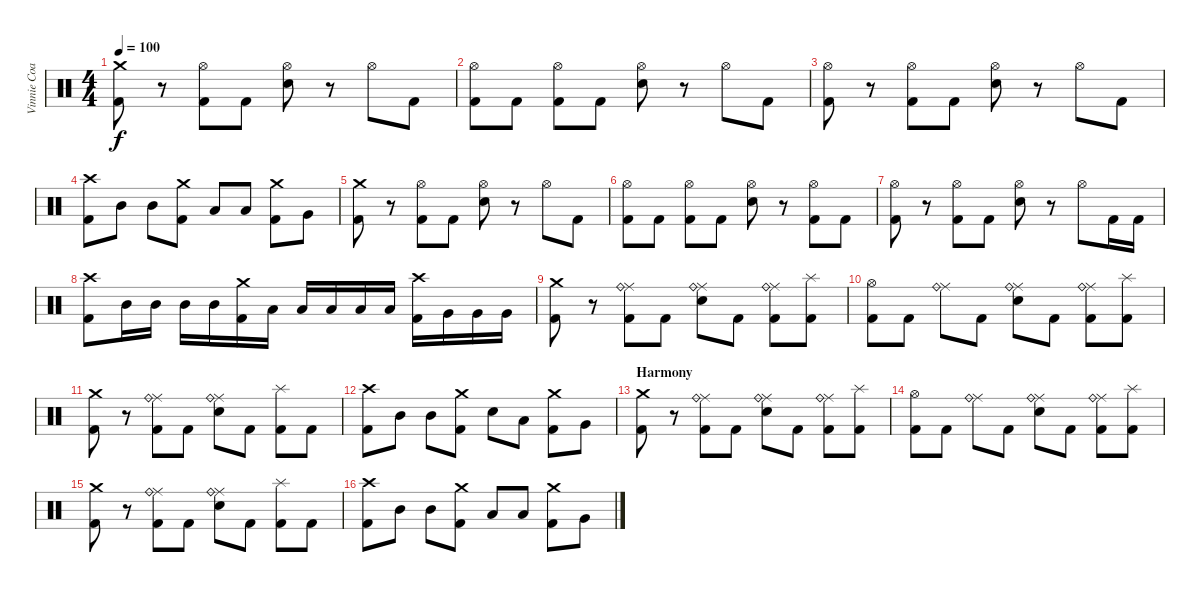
\track ("Vinnie Coaiuta" "Vinnie Coa") {instrument percussion}
\staff {score}
\articulation defaults
\ts (4 4)
\tempo 100
\clef neutral
\ks c
("Crash medium (hit)" "Kick (hit) 2").8{dy f} r.8 ("Hi-Hat (open)" "Kick (hit) 2").8 "Kick (hit) 2".8 ("Hi-Hat (open)" "Electric Snare (hit)").8 r.8 "Hi-Hat (open)".8 "Kick (hit) 2".8 |
("Hi-Hat (open)" "Kick (hit) 2").8 "Kick (hit) 2".8 ("Hi-Hat (open)" "Kick (hit) 2").8 "Kick (hit) 2".8 ("Hi-Hat (open)" "Electric Snare (hit)").8 r.8 "Hi-Hat (open)".8 "Kick (hit) 2".8 |
("Hi-Hat (open)" "Kick (hit) 2").8 r.8 ("Hi-Hat (open)" "Kick (hit) 2").8 "Kick (hit) 2".8 ("Hi-Hat (open)" "Electric Snare (hit)").8 r.8 "Hi-Hat (open)".8 "Kick (hit) 2".8 |
("Crash high (hit)" "Kick (hit) 2").8 "Mid Tom (hit)".8 "Mid Tom (hit)".8 ("Crash medium (hit)" "Kick (hit) 2").8 "Low Tom (hit)".8 "Low Tom (hit)".8 ("Crash medium (hit)" "Kick (hit) 2").8 "Very Low Tom (hit)".8 |
("Crash medium (hit)" "Kick (hit) 2").8 r.8 ("Hi-Hat (open)" "Kick (hit) 2").8 "Kick (hit) 2".8 ("Hi-Hat (open)" "Electric Snare (hit)").8 r.8 "Hi-Hat (open)".8 "Kick (hit) 2".8 |
("Hi-Hat (open)" "Kick (hit) 2").8 "Kick (hit) 2".8 ("Hi-Hat (open)" "Kick (hit) 2").8 "Kick (hit) 2".8 ("Hi-Hat (open)" "Electric Snare (hit)").8 r.8 ("Hi-Hat (open)" "Kick (hit) 2").8 "Kick (hit) 2".8 |
("Hi-Hat (open)" "Kick (hit) 2").8 r.8 ("Hi-Hat (open)" "Kick (hit) 2").8 "Kick (hit) 2".8 ("Hi-Hat (open)" "Electric Snare (hit)").8 r.8 "Hi-Hat (open)".8 "Kick (hit) 2".16 "Kick (hit) 2".16 |
("Crash high (hit)" "Kick (hit) 2").8 "Mid Tom (hit)".16 "Mid Tom (hit)".16 "Mid Tom (hit)".16 "Mid Tom (hit)".16 ("Crash medium (hit)" "Kick (hit) 2").16 "Low Tom (hit)".16 "Low Tom (hit)".16 "Low Tom (hit)".16 "Low Tom (hit)".16 "Low Tom (hit)".16 ("Crash high (hit)" "Kick (hit) 2").16 "Very Low Tom (hit)".16 "Very Low Tom (hit)".16 "Very Low Tom (hit)".16 |
("Crash medium (hit)" "Kick (hit) 2").8 r.8 ("Ride (middle)" "Ride (bell)" "Kick (hit) 2").8 "Kick (hit) 2".8 ("Ride (middle)" "Ride (bell)" "Electric Snare (hit)").8 "Kick (hit) 2".8 ("Ride (middle)" "Ride (bell)" "Kick (hit) 2").8 ("Splash (hit)" "Kick (hit) 2").8 |
("Hi-Hat (open)" "Kick (hit) 2").8 "Kick (hit) 2".8 ("Ride (middle)" "Ride (bell)").8 "Kick (hit) 2".8 ("Ride (middle)" "Ride (bell)" "Electric Snare (hit)").8 "Kick (hit) 2".8 ("Ride (middle)" "Ride (bell)" "Kick (hit) 2").8 ("Splash (hit)" "Kick (hit) 2").8 |
("Crash medium (hit)" "Kick (hit) 2").8 r.8 ("Ride (middle)" "Ride (bell)" "Kick (hit) 2").8 "Kick (hit) 2".8 ("Ride (middle)" "Ride (bell)" "Electric Snare (hit)").8 "Kick (hit) 2".8 ("Splash (hit)" "Kick (hit) 2").8 "Kick (hit) 2".8 |
("Crash high (hit)" "Kick (hit) 2").8 "Mid Tom (hit)".8 "Mid Tom (hit)".8 ("Crash medium (hit)" "Kick (hit) 2").8 "Electric Snare (hit)".8 "Low Tom (hit)".8 ("Crash medium (hit)" "Kick (hit) 2").8 "Very Low Tom (hit)".8 |
\section ("" "Harmony")
("Crash medium (hit)" "Kick (hit) 2").8 r.8 ("Ride (middle)" "Ride (bell)" "Kick (hit) 2").8 "Kick (hit) 2".8 ("Ride (middle)" "Ride (bell)" "Electric Snare (hit)").8 "Kick (hit) 2".8 ("Ride (middle)" "Ride (bell)" "Kick (hit) 2").8 ("Splash (hit)" "Kick (hit) 2").8 |
("Hi-Hat (open)" "Kick (hit) 2").8 "Kick (hit) 2".8 ("Ride (middle)" "Ride (bell)").8 "Kick (hit) 2".8 ("Ride (middle)" "Ride (bell)" "Electric Snare (hit)").8 "Kick (hit) 2".8 ("Ride (middle)" "Ride (bell)" "Kick (hit) 2").8 ("Splash (hit)" "Kick (hit) 2").8 |
("Crash medium (hit)" "Kick (hit) 2").8 r.8 ("Ride (middle)" "Ride (bell)" "Kick (hit) 2").8 "Kick (hit) 2".8 ("Ride (middle)" "Ride (bell)" "Electric Snare (hit)").8 "Kick (hit) 2".8 ("Splash (hit)" "Kick (hit) 2").8 "Kick (hit) 2".8 |
("Crash high (hit)" "Kick (hit) 2").8 "Mid Tom (hit)".8 "Mid Tom (hit)".8 ("Crash medium (hit)" "Kick (hit) 2").8 "Low Tom (hit)".8 "Low Tom (hit)".8 ("Crash medium (hit)" "Kick (hit) 2").8 "Very Low Tom (hit)".8
